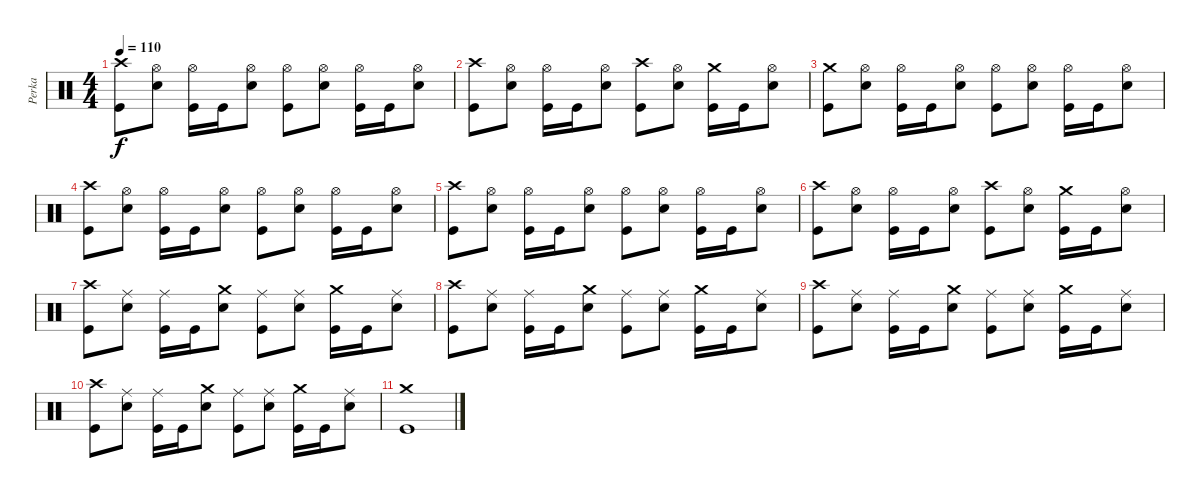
\track ("Perka" "Perka") {instrument percussion}
\staff {score}
\articulation defaults
\ts (4 4)
\tempo 110
\clef neutral
\ks c
("Crash high (hit)" "Kick (hit)").8{dy f} ("Hi-Hat (open)" "Snare (hit) 2").8 ("Hi-Hat (open)" "Kick (hit)").16 "Kick (hit)".16 ("Hi-Hat (open)" "Snare (hit) 2").8 ("Hi-Hat (open)" "Kick (hit)").8 ("Hi-Hat (open)" "Snare (hit) 2").8 ("Hi-Hat (open)" "Kick (hit)").16 "Kick (hit)".16 ("Hi-Hat (open)" "Snare (hit) 2").8 |
("Crash high (hit)" "Kick (hit)").8 ("Hi-Hat (open)" "Snare (hit) 2").8 ("Hi-Hat (open)" "Kick (hit)").16 "Kick (hit)".16 ("Hi-Hat (open)" "Snare (hit) 2").8 ("Crash high (hit)" "Kick (hit)").8 ("Hi-Hat (open)" "Snare (hit) 2").8 ("Crash medium (hit)" "Kick (hit)").16 "Kick (hit)".16 ("Hi-Hat (open)" "Snare (hit) 2").8 |
("Crash medium (hit)" "Kick (hit)").8 ("Hi-Hat (open)" "Snare (hit) 2").8 ("Hi-Hat (open)" "Kick (hit)").16 "Kick (hit)".16 ("Hi-Hat (open)" "Snare (hit) 2").8 ("Hi-Hat (open)" "Kick (hit)").8 ("Hi-Hat (open)" "Snare (hit) 2").8 ("Hi-Hat (open)" "Kick (hit)").16 "Kick (hit)".16 ("Hi-Hat (open)" "Snare (hit) 2").8 |
("Crash high (hit)" "Kick (hit)").8 ("Hi-Hat (open)" "Snare (hit) 2").8 ("Hi-Hat (open)" "Kick (hit)").16 "Kick (hit)".16 ("Hi-Hat (open)" "Snare (hit) 2").8 ("Hi-Hat (open)" "Kick (hit)").8 ("Hi-Hat (open)" "Snare (hit) 2").8 ("Hi-Hat (open)" "Kick (hit)").16 "Kick (hit)".16 ("Hi-Hat (open)" "Snare (hit) 2").8 |
("Crash high (hit)" "Kick (hit)").8 ("Hi-Hat (open)" "Snare (hit) 2").8 ("Hi-Hat (open)" "Kick (hit)").16 "Kick (hit)".16 ("Hi-Hat (open)" "Snare (hit) 2").8 ("Hi-Hat (open)" "Kick (hit)").8 ("Hi-Hat (open)" "Snare (hit) 2").8 ("Hi-Hat (open)" "Kick (hit)").16 "Kick (hit)".16 ("Hi-Hat (open)" "Snare (hit) 2").8 |
("Crash high (hit)" "Kick (hit)").8 ("Hi-Hat (open)" "Snare (hit) 2").8 ("Hi-Hat (open)" "Kick (hit)").16 "Kick (hit)".16 ("Hi-Hat (open)" "Snare (hit) 2").8 ("Crash high (hit)" "Kick (hit)").8 ("Hi-Hat (open)" "Snare (hit) 2").8 ("Crash medium (hit)" "Kick (hit)").16 "Kick (hit)".16 ("Hi-Hat (open)" "Snare (hit) 2").8 |
("Crash high (hit)" "Kick (hit)").8 ("Ride (middle)" "Snare (hit) 2").8 ("Ride (middle)" "Kick (hit)").16 "Kick (hit)".16 ("Crash medium (hit)" "Snare (hit) 2").8 ("Ride (middle)" "Kick (hit)").8 ("Ride (middle)" "Snare (hit) 2").8 ("Crash medium (hit)" "Kick (hit)").16 "Kick (hit)".16 ("Ride (middle)" "Snare (hit) 2").8 |
("Crash high (hit)" "Kick (hit)").8 ("Ride (middle)" "Snare (hit) 2").8 ("Ride (middle)" "Kick (hit)").16 "Kick (hit)".16 ("Crash medium (hit)" "Snare (hit) 2").8 ("Ride (middle)" "Kick (hit)").8 ("Ride (middle)" "Snare (hit) 2").8 ("Crash medium (hit)" "Kick (hit)").16 "Kick (hit)".16 ("Ride (middle)" "Snare (hit) 2").8 |
("Crash high (hit)" "Kick (hit)").8 ("Ride (middle)" "Snare (hit) 2").8 ("Ride (middle)" "Kick (hit)").16 "Kick (hit)".16 ("Crash medium (hit)" "Snare (hit) 2").8 ("Ride (middle)" "Kick (hit)").8 ("Ride (middle)" "Snare (hit) 2").8 ("Crash medium (hit)" "Kick (hit)").16 "Kick (hit)".16 ("Ride (middle)" "Snare (hit) 2").8 |
("Crash high (hit)" "Kick (hit)").8 ("Ride (middle)" "Snare (hit) 2").8 ("Ride (middle)" "Kick (hit)").16 "Kick (hit)".16 ("Crash medium (hit)" "Snare (hit) 2").8 ("Ride (middle)" "Kick (hit)").8 ("Ride (middle)" "Snare (hit) 2").8 ("Crash medium (hit)" "Kick (hit)").16 "Kick (hit)".16 ("Ride (middle)" "Snare (hit) 2").8 |
("Crash medium (hit)" "Kick (hit)").1
